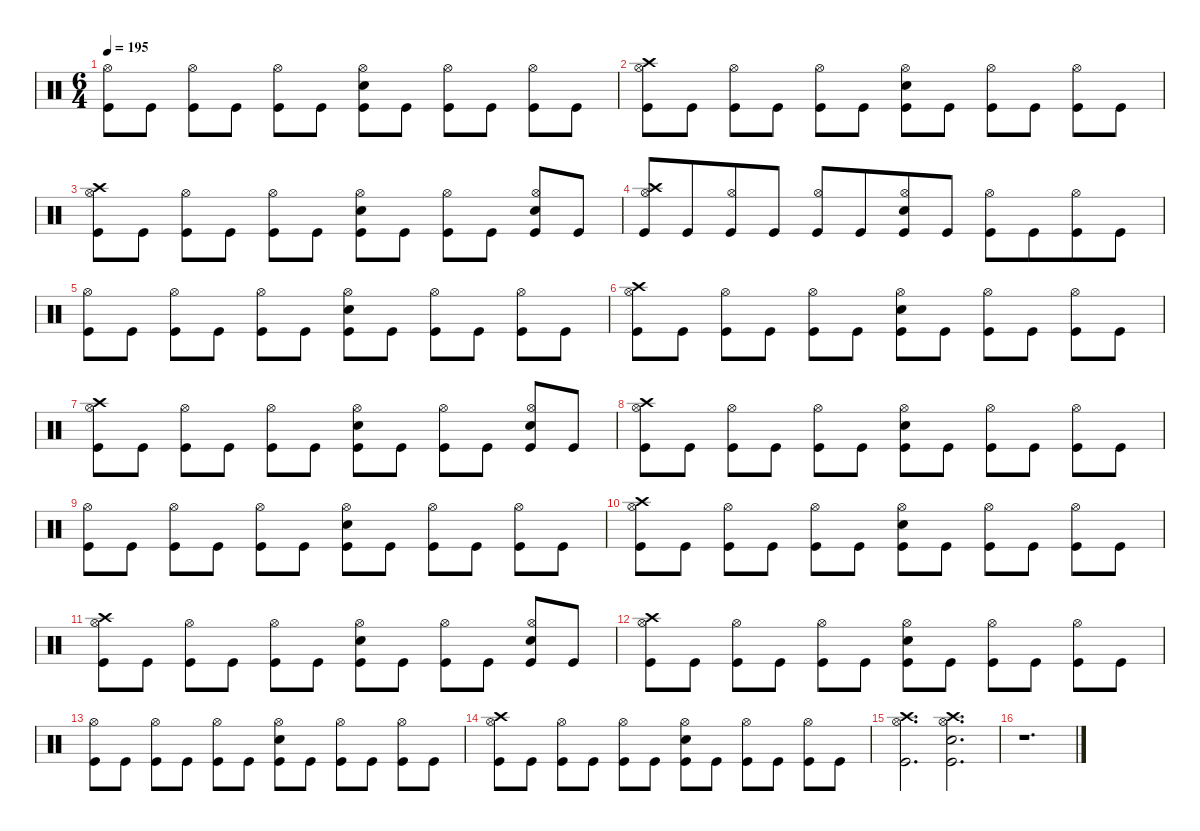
\defaultSystemsLayout 4
\hideDynamics
\bracketExtendMode nobrackets
\singleTrackTrackNamePolicy hidden
\multiTrackTrackNamePolicy hidden
\firstSystemTrackNameMode fullname
\firstSystemTrackNameOrientation horizontal
\otherSystemsTrackNameOrientation horizontal
\track ("Percussion" "drm.") {defaultSystemsLayout 4 instrument percussion}
\staff {score}
\articulation defaults
\ts (6 4)
\tempo 195
\clef neutral
\ks c
("Hi-Hat (open)" "Kick (hit)").8{dy f beam Down} "Kick (hit)".8{beam Down} ("Hi-Hat (open)" "Kick (hit)").8{beam Down} "Kick (hit)".8{beam Down} ("Hi-Hat (open)" "Kick (hit)").8{beam Down} "Kick (hit)".8{beam Down} ("Snare (hit) 2" "Hi-Hat (open)" "Kick (hit)").8{beam Down} "Kick (hit)".8{beam Down} ("Hi-Hat (open)" "Kick (hit)").8{beam Down} "Kick (hit)".8{beam Down} ("Hi-Hat (open)" "Kick (hit)").8{beam Down} "Kick (hit)".8{beam Down} |
("Crash high (hit)" "Hi-Hat (open)" "Kick (hit)").8{beam Down} "Kick (hit)".8{beam Down} ("Hi-Hat (open)" "Kick (hit)").8{beam Down} "Kick (hit)".8{beam Down} ("Hi-Hat (open)" "Kick (hit)").8{beam Down} "Kick (hit)".8{beam Down} ("Snare (hit) 2" "Hi-Hat (open)" "Kick (hit)").8{beam Down} "Kick (hit)".8{beam Down} ("Hi-Hat (open)" "Kick (hit)").8{beam Down} "Kick (hit)".8{beam Down} ("Hi-Hat (open)" "Kick (hit)").8{beam Down} "Kick (hit)".8{beam Down} |
("Crash high (hit)" "Hi-Hat (open)" "Kick (hit)").8{beam Down} "Kick (hit)".8{beam Down} ("Hi-Hat (open)" "Kick (hit)").8{beam Down} "Kick (hit)".8{beam Down} ("Hi-Hat (open)" "Kick (hit)").8{beam Down} "Kick (hit)".8{beam Down} ("Snare (hit) 2" "Hi-Hat (open)" "Kick (hit)").8{beam Down} "Kick (hit)".8{beam Down} ("Hi-Hat (open)" "Kick (hit)").8{beam Down} "Kick (hit)".8{beam Up} ("Snare (hit) 2" "Hi-Hat (open)" "Kick (hit)").8{beam Up} "Kick (hit)".8{beam Up} |
("Crash high (hit)" "Hi-Hat (open)" "Kick (hit)").8{beam Up beam merge} "Kick (hit)".8{beam Up beam merge} ("Hi-Hat (open)" "Kick (hit)").8{beam Up beam merge} "Kick (hit)".8{beam Up beam split} ("Hi-Hat (open)" "Kick (hit)").8{beam Up beam merge} "Kick (hit)".8{beam Up beam merge} ("Snare (hit) 2" "Hi-Hat (open)" "Kick (hit)").8{beam Up beam merge} "Kick (hit)".8{beam Up beam split} ("Hi-Hat (open)" "Kick (hit)").8{beam Down beam merge} "Kick (hit)".8{beam Down beam merge} ("Hi-Hat (open)" "Kick (hit)").8{beam Down beam merge} "Kick (hit)".8{beam Down} |
("Hi-Hat (open)" "Kick (hit)").8{beam Down} "Kick (hit)".8{beam Down} ("Hi-Hat (open)" "Kick (hit)").8{beam Down} "Kick (hit)".8{beam Down} ("Hi-Hat (open)" "Kick (hit)").8{beam Down} "Kick (hit)".8{beam Down} ("Snare (hit) 2" "Hi-Hat (open)" "Kick (hit)").8{beam Down} "Kick (hit)".8{beam Down} ("Hi-Hat (open)" "Kick (hit)").8{beam Down} "Kick (hit)".8{beam Down} ("Hi-Hat (open)" "Kick (hit)").8{beam Down} "Kick (hit)".8{beam Down} |
("Crash high (hit)" "Hi-Hat (open)" "Kick (hit)").8{beam Down} "Kick (hit)".8{beam Down} ("Hi-Hat (open)" "Kick (hit)").8{beam Down} "Kick (hit)".8{beam Down} ("Hi-Hat (open)" "Kick (hit)").8{beam Down} "Kick (hit)".8{beam Down} ("Snare (hit) 2" "Hi-Hat (open)" "Kick (hit)").8{beam Down} "Kick (hit)".8{beam Down} ("Hi-Hat (open)" "Kick (hit)").8{beam Down} "Kick (hit)".8{beam Down} ("Hi-Hat (open)" "Kick (hit)").8{beam Down} "Kick (hit)".8{beam Down} |
("Crash high (hit)" "Hi-Hat (open)" "Kick (hit)").8{beam Down} "Kick (hit)".8{beam Down} ("Hi-Hat (open)" "Kick (hit)").8{beam Down} "Kick (hit)".8{beam Down} ("Hi-Hat (open)" "Kick (hit)").8{beam Down} "Kick (hit)".8{beam Down} ("Snare (hit) 2" "Hi-Hat (open)" "Kick (hit)").8{beam Down} "Kick (hit)".8{beam Down} ("Hi-Hat (open)" "Kick (hit)").8{beam Down} "Kick (hit)".8{beam Up} ("Snare (hit) 2" "Hi-Hat (open)" "Kick (hit)").8{beam Up} "Kick (hit)".8{beam Up} |
("Crash high (hit)" "Hi-Hat (open)" "Kick (hit)").8{beam Down} "Kick (hit)".8{beam Down} ("Hi-Hat (open)" "Kick (hit)").8{beam Down} "Kick (hit)".8{beam Down} ("Hi-Hat (open)" "Kick (hit)").8{beam Down} "Kick (hit)".8{beam Down} ("Snare (hit) 2" "Hi-Hat (open)" "Kick (hit)").8{beam Down} "Kick (hit)".8{beam Down} ("Hi-Hat (open)" "Kick (hit)").8{beam Down} "Kick (hit)".8{beam Down} ("Hi-Hat (open)" "Kick (hit)").8{beam Down} "Kick (hit)".8{beam Down} |
("Hi-Hat (open)" "Kick (hit)").8{beam Down} "Kick (hit)".8{beam Down} ("Hi-Hat (open)" "Kick (hit)").8{beam Down} "Kick (hit)".8{beam Down} ("Hi-Hat (open)" "Kick (hit)").8{beam Down} "Kick (hit)".8{beam Down} ("Snare (hit) 2" "Hi-Hat (open)" "Kick (hit)").8{beam Down} "Kick (hit)".8{beam Down} ("Hi-Hat (open)" "Kick (hit)").8{beam Down} "Kick (hit)".8{beam Down} ("Hi-Hat (open)" "Kick (hit)").8{beam Down} "Kick (hit)".8{beam Down} |
("Crash high (hit)" "Hi-Hat (open)" "Kick (hit)").8{beam Down} "Kick (hit)".8{beam Down} ("Hi-Hat (open)" "Kick (hit)").8{beam Down} "Kick (hit)".8{beam Down} ("Hi-Hat (open)" "Kick (hit)").8{beam Down} "Kick (hit)".8{beam Down} ("Snare (hit) 2" "Hi-Hat (open)" "Kick (hit)").8{beam Down} "Kick (hit)".8{beam Down} ("Hi-Hat (open)" "Kick (hit)").8{beam Down} "Kick (hit)".8{beam Down} ("Hi-Hat (open)" "Kick (hit)").8{beam Down} "Kick (hit)".8{beam Down} |
("Crash high (hit)" "Hi-Hat (open)" "Kick (hit)").8{beam Down} "Kick (hit)".8{beam Down} ("Hi-Hat (open)" "Kick (hit)").8{beam Down} "Kick (hit)".8{beam Down} ("Hi-Hat (open)" "Kick (hit)").8{beam Down} "Kick (hit)".8{beam Down} ("Snare (hit) 2" "Hi-Hat (open)" "Kick (hit)").8{beam Down} "Kick (hit)".8{beam Down} ("Hi-Hat (open)" "Kick (hit)").8{beam Down} "Kick (hit)".8{beam Up} ("Snare (hit) 2" "Hi-Hat (open)" "Kick (hit)").8{beam Up} "Kick (hit)".8{beam Up} |
("Crash high (hit)" "Hi-Hat (open)" "Kick (hit)").8{beam Down} "Kick (hit)".8{beam Down} ("Hi-Hat (open)" "Kick (hit)").8{beam Down} "Kick (hit)".8{beam Down} ("Hi-Hat (open)" "Kick (hit)").8{beam Down} "Kick (hit)".8{beam Down} ("Snare (hit) 2" "Hi-Hat (open)" "Kick (hit)").8{beam Down} "Kick (hit)".8{beam Down} ("Hi-Hat (open)" "Kick (hit)").8{beam Down} "Kick (hit)".8{beam Down} ("Hi-Hat (open)" "Kick (hit)").8{beam Down} "Kick (hit)".8{beam Down} |
("Hi-Hat (open)" "Kick (hit)").8{beam Down} "Kick (hit)".8{beam Down} ("Hi-Hat (open)" "Kick (hit)").8{beam Down} "Kick (hit)".8{beam Down} ("Hi-Hat (open)" "Kick (hit)").8{beam Down} "Kick (hit)".8{beam Down} ("Snare (hit) 2" "Hi-Hat (open)" "Kick (hit)").8{beam Down} "Kick (hit)".8{beam Down} ("Hi-Hat (open)" "Kick (hit)").8{beam Down} "Kick (hit)".8{beam Down} ("Hi-Hat (open)" "Kick (hit)").8{beam Down} "Kick (hit)".8{beam Down} |
("Crash high (hit)" "Hi-Hat (open)" "Kick (hit)").8{beam Down} "Kick (hit)".8{beam Down} ("Hi-Hat (open)" "Kick (hit)").8{beam Down} "Kick (hit)".8{beam Down} ("Hi-Hat (open)" "Kick (hit)").8{beam Down} "Kick (hit)".8{beam Down} ("Snare (hit) 2" "Hi-Hat (open)" "Kick (hit)").8{beam Down} "Kick (hit)".8{beam Down} ("Hi-Hat (open)" "Kick (hit)").8{beam Down} "Kick (hit)".8{beam Down} ("Hi-Hat (open)" "Kick (hit)").8{beam Down} "Kick (hit)".8{beam Down} |
("Crash high (hit)" "Hi-Hat (open)" "Kick (hit)").2{d beam Down} ("Crash high (hit)" "Snare (hit) 2" "Hi-Hat (open)" "Kick (hit)").2{d beam Down} |
r.1{d beam Down}
